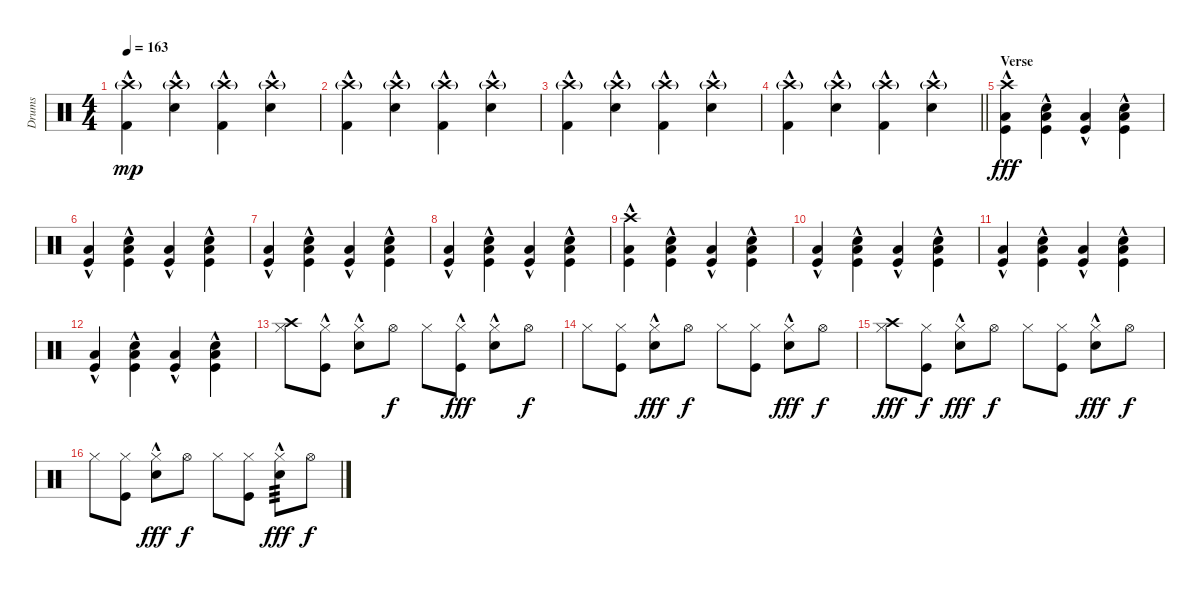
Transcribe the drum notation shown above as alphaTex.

\track ("Drums" "Drums") {instrument percussion}
\staff {score}
\articulation defaults
\ts (4 4)
\tempo 163
\clef neutral
\ks c
("Kick (hit) 2"{hac} "Crash high (hit)"{g}).4{dy mp} ("Snare (hit) 2"{hac} "Crash high (hit)"{g}).4 ("Kick (hit) 2"{hac} "Crash high (hit)"{g}).4 ("Snare (hit) 2"{hac} "Crash high (hit)"{g}).4 |
("Kick (hit) 2"{hac} "Crash high (hit)"{g}).4 ("Snare (hit) 2"{hac} "Crash high (hit)"{g}).4 ("Kick (hit) 2"{hac} "Crash high (hit)"{g}).4 ("Snare (hit) 2"{hac} "Crash high (hit)"{g}).4 |
("Kick (hit) 2"{hac} "Crash high (hit)"{g}).4 ("Snare (hit) 2"{hac} "Crash high (hit)"{g}).4 ("Kick (hit) 2"{hac} "Crash high (hit)"{g}).4 ("Snare (hit) 2"{hac} "Crash high (hit)"{g}).4 |
\barLineRight lightlight
("Kick (hit) 2"{hac} "Crash high (hit)"{g}).4 ("Snare (hit) 2"{hac} "Crash high (hit)"{g}).4 ("Kick (hit) 2"{hac} "Crash high (hit)"{g}).4 ("Snare (hit) 2"{hac} "Crash high (hit)"{g}).4 |
\section ("" "Verse")
("Kick (hit)"{hac} "Low Floor Tom (hit)" "Crash high (hit)").4{dy fff} ("Kick (hit)"{hac} "Low Floor Tom (hit)" "Snare (hit) 2"{hac}).4 ("Kick (hit)"{hac} "Low Floor Tom (hit)").4 ("Kick (hit)"{hac} "Low Floor Tom (hit)" "Snare (hit) 2"{hac}).4 |
("Kick (hit)"{hac} "Low Floor Tom (hit)").4 ("Kick (hit)"{hac} "Low Floor Tom (hit)" "Snare (hit) 2"{hac}).4 ("Kick (hit)"{hac} "Low Floor Tom (hit)").4 ("Kick (hit)"{hac} "Low Floor Tom (hit)" "Snare (hit) 2"{hac}).4 |
("Kick (hit)"{hac} "Low Floor Tom (hit)").4 ("Kick (hit)"{hac} "Low Floor Tom (hit)" "Snare (hit) 2"{hac}).4 ("Kick (hit)"{hac} "Low Floor Tom (hit)").4 ("Kick (hit)"{hac} "Low Floor Tom (hit)" "Snare (hit) 2"{hac}).4 |
("Kick (hit)"{hac} "Low Floor Tom (hit)").4 ("Kick (hit)"{hac} "Low Floor Tom (hit)" "Snare (hit) 2"{hac}).4 ("Kick (hit)"{hac} "Low Floor Tom (hit)").4 ("Kick (hit)"{hac} "Low Floor Tom (hit)" "Snare (hit) 2"{hac}).4 |
("Kick (hit)"{hac} "Low Floor Tom (hit)" "Crash high (hit)").4 ("Kick (hit)"{hac} "Low Floor Tom (hit)" "Snare (hit) 2"{hac}).4 ("Kick (hit)"{hac} "Low Floor Tom (hit)").4 ("Kick (hit)"{hac} "Low Floor Tom (hit)" "Snare (hit) 2"{hac}).4 |
("Kick (hit)"{hac} "Low Floor Tom (hit)").4 ("Kick (hit)"{hac} "Low Floor Tom (hit)" "Snare (hit) 2"{hac}).4 ("Kick (hit)"{hac} "Low Floor Tom (hit)").4 ("Kick (hit)"{hac} "Low Floor Tom (hit)" "Snare (hit) 2"{hac}).4 |
("Kick (hit)"{hac} "Low Floor Tom (hit)").4 ("Kick (hit)"{hac} "Low Floor Tom (hit)" "Snare (hit) 2"{hac}).4 ("Kick (hit)"{hac} "Low Floor Tom (hit)").4 ("Kick (hit)"{hac} "Low Floor Tom (hit)" "Snare (hit) 2"{hac}).4 |
("Kick (hit)"{hac} "Low Floor Tom (hit)").4 ("Kick (hit)"{hac} "Low Floor Tom (hit)" "Snare (hit) 2"{hac}).4 ("Kick (hit)"{hac} "Low Floor Tom (hit)").4 ("Kick (hit)"{hac} "Low Floor Tom (hit)" "Snare (hit) 2"{hac}).4 |
("Crash high (hit)" "Hi-Hat (closed)").8 ("Kick (hit)"{hac} "Hi-Hat (closed)").8 ("Snare (hit) 2"{hac} "Hi-Hat (closed)").8 "Hi-Hat (open)".8{dy f} "Hi-Hat (closed)".8 ("Kick (hit)"{hac} "Hi-Hat (closed)").8{dy fff} ("Snare (hit) 2"{hac} "Hi-Hat (closed)").8 "Hi-Hat (open)".8{dy f} |
"Hi-Hat (closed)".8 ("Kick (hit)" "Hi-Hat (closed)").8 ("Snare (hit) 2"{hac} "Hi-Hat (closed)").8{dy fff} "Hi-Hat (open)".8{dy f} "Hi-Hat (closed)".8 ("Kick (hit)" "Hi-Hat (closed)").8 ("Snare (hit) 2"{hac} "Hi-Hat (closed)").8{dy fff} "Hi-Hat (open)".8{dy f} |
("Crash high (hit)" "Hi-Hat (closed)").8{dy fff} ("Kick (hit)" "Hi-Hat (closed)").8{dy f} ("Snare (hit) 2"{hac} "Hi-Hat (closed)").8{dy fff} "Hi-Hat (open)".8{dy f} "Hi-Hat (closed)".8 ("Kick (hit)" "Hi-Hat (closed)").8 ("Snare (hit) 2"{hac} "Hi-Hat (closed)").8{dy fff} "Hi-Hat (open)".8{dy f} |
"Hi-Hat (closed)".8 ("Kick (hit)" "Hi-Hat (closed)").8 ("Snare (hit) 2"{hac} "Hi-Hat (closed)").8{dy fff} "Hi-Hat (open)".8{dy f} "Hi-Hat (closed)".8 ("Kick (hit)" "Hi-Hat (closed)").8 ("Snare (hit) 2"{hac} "Hi-Hat (closed)").8{tp 3 dy fff} "Hi-Hat (open)".8{dy f}
